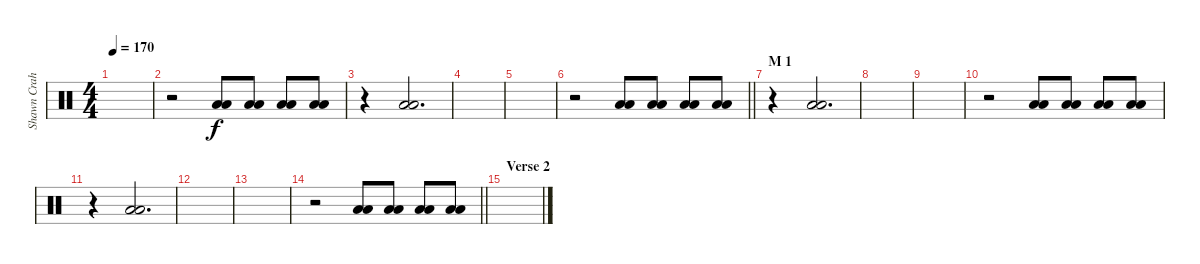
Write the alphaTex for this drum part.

\track ("Shawn Crahan" "Shawn Crah") {instrument percussion}
\staff {score}
\articulation defaults
\ts (4 4)
\tempo 170
\clef neutral
\ks c
|
r.2 ("Low Floor Tom (hit)" "Low Floor Tom (hit)").8 ("Low Floor Tom (hit)" "Low Floor Tom (hit)").8 ("Low Floor Tom (hit)" "Low Floor Tom (hit)").8 ("Low Floor Tom (hit)" "Low Floor Tom (hit)").8 |
r.4 ("Low Floor Tom (hit)" "Low Floor Tom (hit)").2{d} |
|
|
\barLineRight lightlight
r.2 ("Low Floor Tom (hit)" "Low Floor Tom (hit)").8 ("Low Floor Tom (hit)" "Low Floor Tom (hit)").8 ("Low Floor Tom (hit)" "Low Floor Tom (hit)").8 ("Low Floor Tom (hit)" "Low Floor Tom (hit)").8 |
\section ("" "M 1")
r.4 ("Low Floor Tom (hit)" "Low Floor Tom (hit)").2{d} |
|
|
r.2 ("Low Floor Tom (hit)" "Low Floor Tom (hit)").8 ("Low Floor Tom (hit)" "Low Floor Tom (hit)").8 ("Low Floor Tom (hit)" "Low Floor Tom (hit)").8 ("Low Floor Tom (hit)" "Low Floor Tom (hit)").8 |
r.4 ("Low Floor Tom (hit)" "Low Floor Tom (hit)").2{d} |
|
|
\barLineRight lightlight
r.2 ("Low Floor Tom (hit)" "Low Floor Tom (hit)").8 ("Low Floor Tom (hit)" "Low Floor Tom (hit)").8 ("Low Floor Tom (hit)" "Low Floor Tom (hit)").8 ("Low Floor Tom (hit)" "Low Floor Tom (hit)").8 |
\section ("" "Verse 2")
